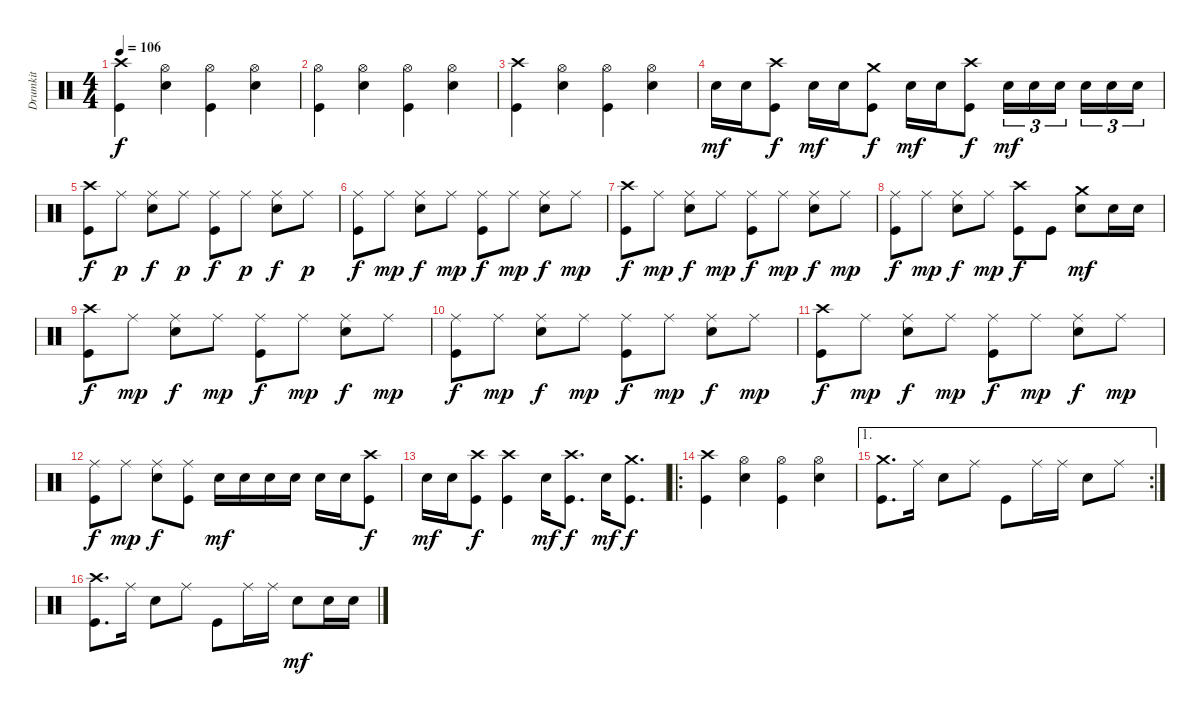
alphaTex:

\track ("Drumkit" "Drumkit") {instrument percussion}
\staff {score}
\articulation defaults
\ts (4 4)
\tempo 106
\clef neutral
\ks c
("Kick (hit)" "Crash high (hit)").4{dy f} ("Hi-Hat (open)" "Snare (hit) 2").4 ("Kick (hit)" "Hi-Hat (open)").4 ("Hi-Hat (open)" "Snare (hit) 2").4 |
("Kick (hit)" "Hi-Hat (open)").4 ("Hi-Hat (open)" "Snare (hit) 2").4 ("Kick (hit)" "Hi-Hat (open)").4 ("Hi-Hat (open)" "Snare (hit) 2").4 |
("Kick (hit)" "Crash high (hit)").4 ("Hi-Hat (open)" "Snare (hit) 2").4 ("Kick (hit)" "Hi-Hat (open)").4 ("Hi-Hat (open)" "Snare (hit) 2").4 |
"Snare (hit) 2".16{dy mf} "Snare (hit) 2".16 ("Kick (hit)" "Crash high (hit)").8{dy f} "Snare (hit) 2".16{dy mf} "Snare (hit) 2".16 ("Kick (hit)" "Crash medium (hit)").8{dy f} "Snare (hit) 2".16{dy mf} "Snare (hit) 2".16 ("Kick (hit)" "Crash high (hit)").8{dy f} "Snare (hit) 2".16{tu (3 2) dy mf} "Snare (hit) 2".16{tu (3 2)} "Snare (hit) 2".16{tu (3 2)} "Snare (hit) 2".16{tu (3 2)} "Snare (hit) 2".16{tu (3 2)} "Snare (hit) 2".16{tu (3 2)} |
("Kick (hit)" "Crash high (hit)").8{dy f} "Ride (middle)".8{dy p} ("Ride (middle)" "Snare (hit) 2").8{dy f} "Ride (middle)".8{dy p} ("Kick (hit)" "Ride (middle)").8{dy f} "Ride (middle)".8{dy p} ("Ride (middle)" "Snare (hit) 2").8{dy f} "Ride (middle)".8{dy p} |
("Kick (hit)" "Ride (middle)").8{dy f} "Ride (middle)".8{dy mp} ("Ride (middle)" "Snare (hit) 2").8{dy f} "Ride (middle)".8{dy mp} ("Kick (hit)" "Ride (middle)").8{dy f} "Ride (middle)".8{dy mp} ("Ride (middle)" "Snare (hit) 2").8{dy f} "Ride (middle)".8{dy mp} |
("Kick (hit)" "Crash high (hit)").8{dy f} "Ride (middle)".8{dy mp} ("Ride (middle)" "Snare (hit) 2").8{dy f} "Ride (middle)".8{dy mp} ("Kick (hit)" "Ride (middle)").8{dy f} "Ride (middle)".8{dy mp} ("Ride (middle)" "Snare (hit) 2").8{dy f} "Ride (middle)".8{dy mp} |
("Kick (hit)" "Ride (middle)").8{dy f} "Ride (middle)".8{dy mp} ("Ride (middle)" "Snare (hit) 2").8{dy f} "Ride (middle)".8{dy mp} ("Kick (hit)" "Crash high (hit)").8{dy f} "Kick (hit)".8 ("Crash medium (hit)" "Snare (hit) 2").8{dy mf} "Snare (hit) 2".16 "Snare (hit) 2".16 |
("Kick (hit)" "Crash high (hit)").8{dy f} "Ride (middle)".8{dy mp} ("Ride (middle)" "Snare (hit) 2").8{dy f} "Ride (middle)".8{dy mp} ("Kick (hit)" "Ride (middle)").8{dy f} "Ride (middle)".8{dy mp} ("Ride (middle)" "Snare (hit) 2").8{dy f} "Ride (middle)".8{dy mp} |
("Kick (hit)" "Ride (middle)").8{dy f} "Ride (middle)".8{dy mp} ("Ride (middle)" "Snare (hit) 2").8{dy f} "Ride (middle)".8{dy mp} ("Kick (hit)" "Ride (middle)").8{dy f} "Ride (middle)".8{dy mp} ("Ride (middle)" "Snare (hit) 2").8{dy f} "Ride (middle)".8{dy mp} |
("Kick (hit)" "Crash high (hit)").8{dy f} "Ride (middle)".8{dy mp} ("Ride (middle)" "Snare (hit) 2").8{dy f} "Ride (middle)".8{dy mp} ("Kick (hit)" "Ride (middle)").8{dy f} "Ride (middle)".8{dy mp} ("Ride (middle)" "Snare (hit) 2").8{dy f} "Ride (middle)".8{dy mp} |
("Kick (hit)" "Ride (middle)").8{dy f} "Ride (middle)".8{dy mp} ("Ride (middle)" "Snare (hit) 2").8{dy f} ("Kick (hit)" "Ride (middle)").8 "Snare (hit) 2".16{dy mf} "Snare (hit) 2".16 "Snare (hit) 2".16 "Snare (hit) 2".16 "Snare (hit) 2".16 "Snare (hit) 2".16 ("Kick (hit)" "Crash high (hit)").8{dy f} |
"Snare (hit) 2".16{dy mf} "Snare (hit) 2".16 ("Kick (hit)" "Crash high (hit)").8{dy f} ("Kick (hit)" "Crash high (hit)").4 "Snare (hit) 2".16{dy mf} ("Kick (hit)" "Crash high (hit)").8{d dy f} "Snare (hit) 2".16{dy mf} ("Kick (hit)" "Crash medium (hit)").8{d dy f} |
\ro
("Kick (hit)" "Crash high (hit)").4 ("Hi-Hat (open)" "Snare (hit) 2").4 ("Kick (hit)" "Hi-Hat (open)").4 ("Hi-Hat (open)" "Snare (hit) 2").4 |
\ae 1
\rc 2
("Kick (hit)" "Crash medium (hit)").8{d} "Ride (middle)".16 "Snare (hit) 2".8 "Ride (middle)".8 "Kick (hit)".8 "Ride (middle)".16 "Ride (middle)".16 "Snare (hit) 2".8 "Ride (middle)".8 |
("Kick (hit)" "Crash high (hit)").8{d} "Ride (middle)".16 "Snare (hit) 2".8 "Ride (middle)".8 "Kick (hit)".8 "Ride (middle)".16 "Ride (middle)".16 "Snare (hit) 2".8{dy mf} "Snare (hit) 2".16 "Snare (hit) 2".16
